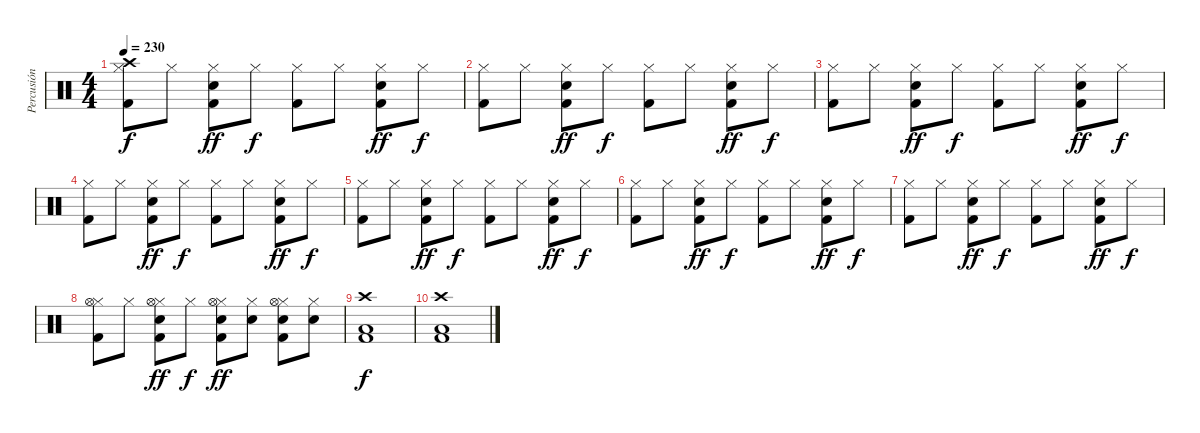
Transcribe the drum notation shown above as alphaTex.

\track ("Percusión" "Percusión") {instrument percussion}
\staff {score}
\articulation defaults
\ts (4 4)
\tempo 230
\clef neutral
\ks c
("Crash high (hit)" "Hi-Hat (closed)" "Kick (hit) 2").8{dy f} "Hi-Hat (closed)".8 ("Hi-Hat (closed)" "Snare (hit) 2" "Kick (hit) 2").8{dy ff} "Hi-Hat (closed)".8{dy f} ("Hi-Hat (closed)" "Kick (hit) 2").8 "Hi-Hat (closed)".8 ("Hi-Hat (closed)" "Snare (hit) 2" "Kick (hit) 2").8{dy ff} "Hi-Hat (closed)".8{dy f} |
("Hi-Hat (closed)" "Kick (hit) 2").8 "Hi-Hat (closed)".8 ("Hi-Hat (closed)" "Snare (hit) 2" "Kick (hit) 2").8{dy ff} "Hi-Hat (closed)".8{dy f} ("Hi-Hat (closed)" "Kick (hit) 2").8 "Hi-Hat (closed)".8 ("Hi-Hat (closed)" "Snare (hit) 2" "Kick (hit) 2").8{dy ff} "Hi-Hat (closed)".8{dy f} |
("Hi-Hat (closed)" "Kick (hit) 2").8 "Hi-Hat (closed)".8 ("Hi-Hat (closed)" "Snare (hit) 2" "Kick (hit) 2").8{dy ff} "Hi-Hat (closed)".8{dy f} ("Hi-Hat (closed)" "Kick (hit) 2").8 "Hi-Hat (closed)".8 ("Hi-Hat (closed)" "Snare (hit) 2" "Kick (hit) 2").8{dy ff} "Hi-Hat (closed)".8{dy f} |
("Hi-Hat (closed)" "Kick (hit) 2").8 "Hi-Hat (closed)".8 ("Hi-Hat (closed)" "Snare (hit) 2" "Kick (hit) 2").8{dy ff} "Hi-Hat (closed)".8{dy f} ("Hi-Hat (closed)" "Kick (hit) 2").8 "Hi-Hat (closed)".8 ("Hi-Hat (closed)" "Snare (hit) 2" "Kick (hit) 2").8{dy ff} "Hi-Hat (closed)".8{dy f} |
("Hi-Hat (closed)" "Kick (hit) 2").8 "Hi-Hat (closed)".8 ("Hi-Hat (closed)" "Snare (hit) 2" "Kick (hit) 2").8{dy ff} "Hi-Hat (closed)".8{dy f} ("Hi-Hat (closed)" "Kick (hit) 2").8 "Hi-Hat (closed)".8 ("Hi-Hat (closed)" "Snare (hit) 2" "Kick (hit) 2").8{dy ff} "Hi-Hat (closed)".8{dy f} |
("Hi-Hat (closed)" "Kick (hit) 2").8 "Hi-Hat (closed)".8 ("Hi-Hat (closed)" "Snare (hit) 2" "Kick (hit) 2").8{dy ff} "Hi-Hat (closed)".8{dy f} ("Hi-Hat (closed)" "Kick (hit) 2").8 "Hi-Hat (closed)".8 ("Hi-Hat (closed)" "Snare (hit) 2" "Kick (hit) 2").8{dy ff} "Hi-Hat (closed)".8{dy f} |
("Hi-Hat (closed)" "Kick (hit) 2").8 "Hi-Hat (closed)".8 ("Hi-Hat (closed)" "Snare (hit) 2" "Kick (hit) 2").8{dy ff} "Hi-Hat (closed)".8{dy f} ("Hi-Hat (closed)" "Kick (hit) 2").8 "Hi-Hat (closed)".8 ("Hi-Hat (closed)" "Snare (hit) 2" "Kick (hit) 2").8{dy ff} "Hi-Hat (closed)".8{dy f} |
("Hi-Hat (closed)" "Kick (hit) 2" "Hi-Hat (open)").8 "Hi-Hat (closed)".8 ("Hi-Hat (closed)" "Snare (hit) 2" "Kick (hit) 2" "Hi-Hat (open)").8{dy ff} "Hi-Hat (closed)".8{dy f} ("Hi-Hat (closed)" "Snare (hit) 2" "Kick (hit) 2" "Hi-Hat (open)").8{dy ff} ("Hi-Hat (closed)" "Snare (hit) 2").8 ("Hi-Hat (closed)" "Snare (hit) 2" "Kick (hit) 2" "Hi-Hat (open)").8 ("Hi-Hat (closed)" "Snare (hit) 2").8 |
("Crash high (hit)" "Kick (hit) 2" "Low Tom (hit)").1{dy f} |
("Crash high (hit)" "Kick (hit) 2" "Low Tom (hit)").1
